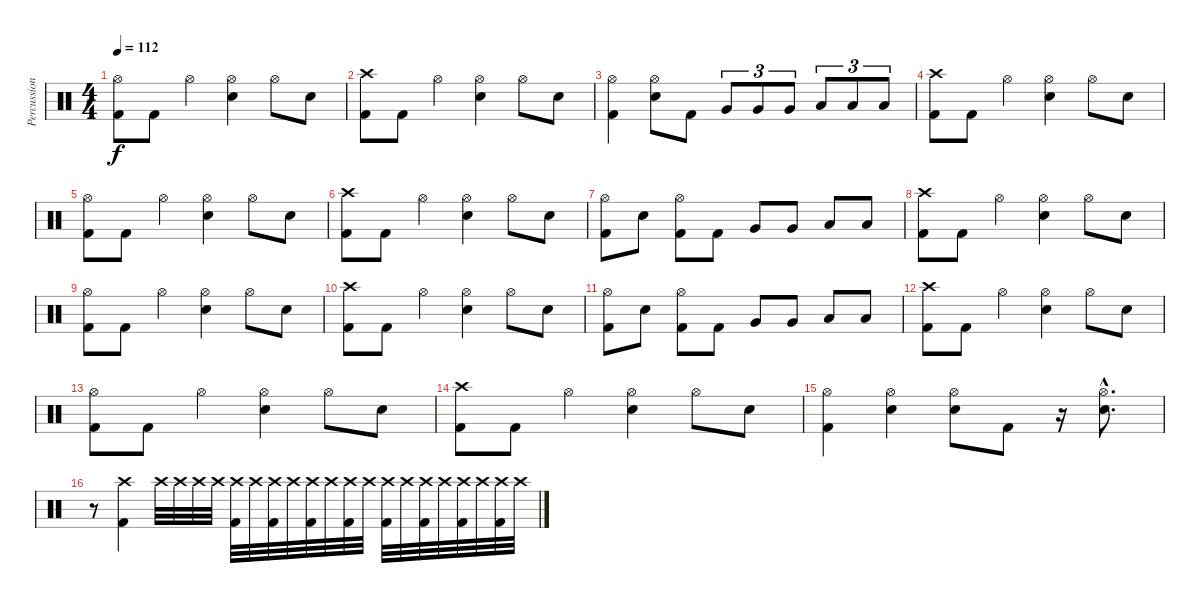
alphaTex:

\track ("Percussion" "Percussion") {instrument percussion}
\staff {score}
\articulation defaults
\ts (4 4)
\tempo 112
\clef neutral
\ks c
("Hi-Hat (open)" "Kick (hit) 2").8{dy f} "Kick (hit) 2".8 "Hi-Hat (open)".4 ("Hi-Hat (open)" "Snare (hit) 2").4 "Hi-Hat (open)".8 "Snare (hit) 2".8 |
("Crash high (hit)" "Kick (hit) 2").8 "Kick (hit) 2".8 "Hi-Hat (open)".4 ("Hi-Hat (open)" "Snare (hit) 2").4 "Hi-Hat (open)".8 "Snare (hit) 2".8 |
("Hi-Hat (open)" "Kick (hit) 2").4 ("Hi-Hat (open)" "Snare (hit) 2").8 "Kick (hit) 2".8 "Very Low Tom (hit)".8{tu (3 2)} "Very Low Tom (hit)".8{tu (3 2)} "Very Low Tom (hit)".8{tu (3 2)} "Low Floor Tom (hit)".8{tu (3 2)} "Low Floor Tom (hit)".8{tu (3 2)} "Low Floor Tom (hit)".8{tu (3 2)} |
("Crash high (hit)" "Kick (hit) 2").8 "Kick (hit) 2".8 "Hi-Hat (open)".4 ("Hi-Hat (open)" "Snare (hit) 2").4 "Hi-Hat (open)".8 "Snare (hit) 2".8 |
("Hi-Hat (open)" "Kick (hit) 2").8 "Kick (hit) 2".8 "Hi-Hat (open)".4 ("Hi-Hat (open)" "Snare (hit) 2").4 "Hi-Hat (open)".8 "Snare (hit) 2".8 |
("Crash high (hit)" "Kick (hit) 2").8 "Kick (hit) 2".8 "Hi-Hat (open)".4 ("Hi-Hat (open)" "Snare (hit) 2").4 "Hi-Hat (open)".8 "Snare (hit) 2".8 |
("Hi-Hat (open)" "Kick (hit) 2").8 "Snare (hit) 2".8 ("Hi-Hat (open)" "Kick (hit) 2").8 "Kick (hit) 2".8 "Very Low Tom (hit)".8 "Very Low Tom (hit)".8 "Low Floor Tom (hit)".8 "Low Floor Tom (hit)".8 |
("Crash high (hit)" "Kick (hit) 2").8 "Kick (hit) 2".8 "Hi-Hat (open)".4 ("Hi-Hat (open)" "Snare (hit) 2").4 "Hi-Hat (open)".8 "Snare (hit) 2".8 |
("Hi-Hat (open)" "Kick (hit) 2").8 "Kick (hit) 2".8 "Hi-Hat (open)".4 ("Hi-Hat (open)" "Snare (hit) 2").4 "Hi-Hat (open)".8 "Snare (hit) 2".8 |
("Crash high (hit)" "Kick (hit) 2").8 "Kick (hit) 2".8 "Hi-Hat (open)".4 ("Hi-Hat (open)" "Snare (hit) 2").4 "Hi-Hat (open)".8 "Snare (hit) 2".8 |
("Hi-Hat (open)" "Kick (hit) 2").8 "Snare (hit) 2".8 ("Hi-Hat (open)" "Kick (hit) 2").8 "Kick (hit) 2".8 "Very Low Tom (hit)".8 "Very Low Tom (hit)".8 "Low Floor Tom (hit)".8 "Low Floor Tom (hit)".8 |
("Crash high (hit)" "Kick (hit) 2").8 "Kick (hit) 2".8 "Hi-Hat (open)".4 ("Hi-Hat (open)" "Snare (hit) 2").4 "Hi-Hat (open)".8 "Snare (hit) 2".8 |
("Hi-Hat (open)" "Kick (hit) 2").8 "Kick (hit) 2".8 "Hi-Hat (open)".4 ("Hi-Hat (open)" "Snare (hit) 2").4 "Hi-Hat (open)".8 "Snare (hit) 2".8 |
("Crash high (hit)" "Kick (hit) 2").8 "Kick (hit) 2".8 "Hi-Hat (open)".4 ("Hi-Hat (open)" "Snare (hit) 2").4 "Hi-Hat (open)".8 "Snare (hit) 2".8 |
("Hi-Hat (open)" "Kick (hit) 2").4 ("Hi-Hat (open)" "Snare (hit) 2").4 ("Hi-Hat (open)" "Snare (hit) 2").8 "Kick (hit) 2".8 r.16 ("Hi-Hat (open)"{hac} "Snare (hit) 2"{hac}).8{d} |
r.8 ("Crash high (hit)" "Kick (hit) 2").4 "Crash high (hit)".32 "Crash high (hit)".32 "Crash high (hit)".32 "Crash high (hit)".32 ("Crash high (hit)" "Kick (hit) 2").32 "Crash high (hit)".32 ("Crash high (hit)" "Kick (hit) 2").32 "Crash high (hit)".32 ("Crash high (hit)" "Kick (hit) 2").32 "Crash high (hit)".32 ("Crash high (hit)" "Kick (hit) 2").32 "Crash high (hit)".32 ("Crash high (hit)" "Kick (hit) 2").32 "Crash high (hit)".32 ("Crash high (hit)" "Kick (hit) 2").32 "Crash high (hit)".32 ("Crash high (hit)" "Kick (hit) 2").32 "Crash high (hit)".32 ("Crash high (hit)" "Kick (hit) 2").32 "Crash high (hit)".32
